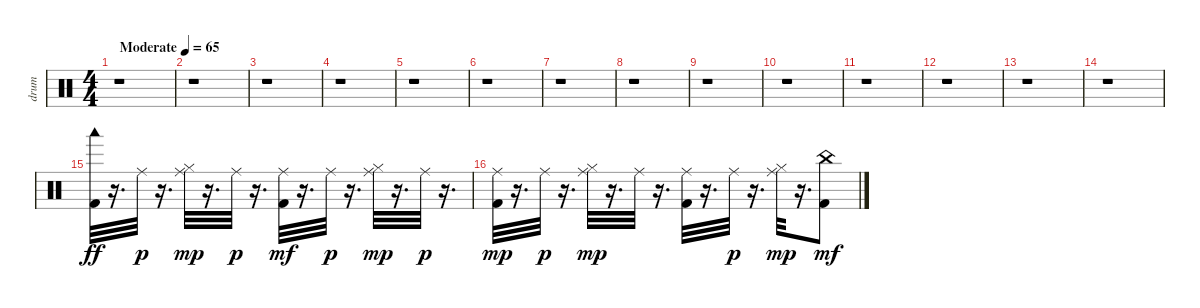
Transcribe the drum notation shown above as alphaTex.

\track ("drum" "drum") {instrument percussion}
\staff {score}
\articulation defaults
\ts (4 4)
\tempo (65 "Moderate")
\clef neutral
\ks c
r.1{dy ff} |
r.1 |
r.1 |
r.1 |
r.1 |
r.1 |
r.1 |
r.1 |
r.1 |
r.1 |
r.1 |
r.1 |
r.1 |
r.1 |
("Kick (hit) 2" "Woodblock low (hit)").32 r.16{d} "Ride (middle)".32{dy p} r.16{d} ("Hi-Hat (closed)" "Ride (middle)").32{dy mp} r.16{d} "Ride (middle)".32{dy p} r.16{d} ("Ride (middle)" "Kick (hit) 2").32{dy mf} r.16{d} "Ride (middle)".32{dy p} r.16{d} ("Hi-Hat (closed)" "Ride (middle)").32{dy mp} r.16{d} "Ride (middle)".32{dy p} r.16{d} |
("Kick (hit) 2" "Ride (middle)").32{dy mp} r.16{d} "Ride (middle)".32{dy p} r.16{d} ("Hi-Hat (closed)" "Ride (middle)").32{dy mp} r.16{d} "Ride (middle)".32 r.16{d} ("Kick (hit) 2" "Ride (middle)").32 r.16{d} "Ride (middle)".32{dy p} r.16{d} ("Hi-Hat (closed)" "Ride (middle)").32{dy mp} r.16{d} ("Kick (hit) 2" "China (hit)").8{dy mf}
